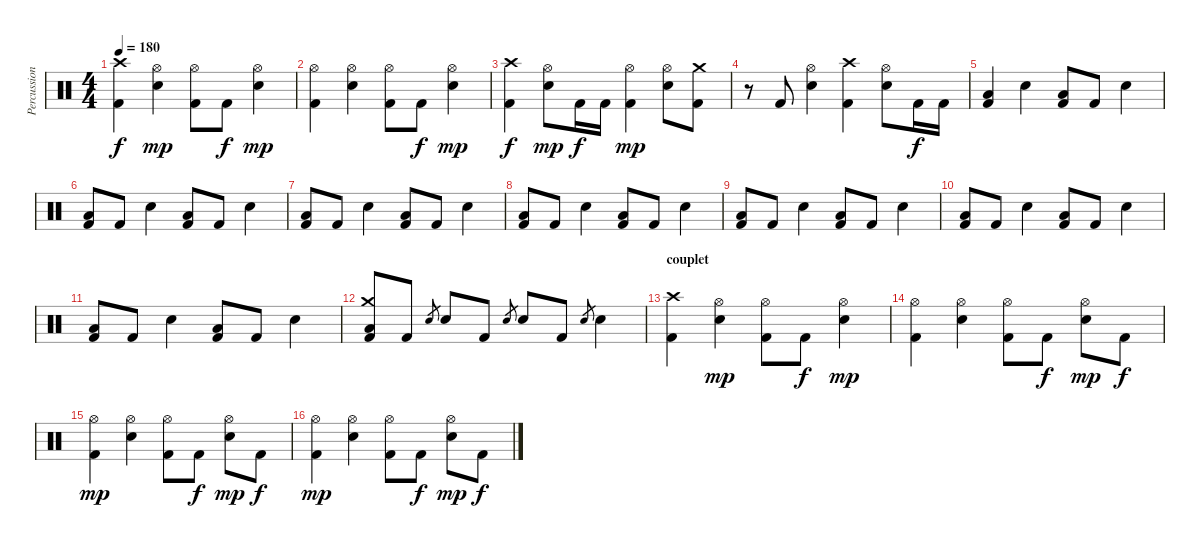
\track ("Percussions" "Percussion") {instrument percussion}
\staff {score}
\articulation defaults
\ts (4 4)
\tempo 180
\clef neutral
\ks c
("Crash high (hit)" "Kick (hit) 2").4{dy f} ("Hi-Hat (open)" "Electric Snare (hit)").4{dy mp} ("Hi-Hat (open)" "Kick (hit) 2").8 "Kick (hit) 2".8{dy f} ("Hi-Hat (open)" "Electric Snare (hit)").4{dy mp} |
("Hi-Hat (open)" "Kick (hit) 2").4 ("Hi-Hat (open)" "Electric Snare (hit)").4 ("Hi-Hat (open)" "Kick (hit) 2").8 "Kick (hit) 2".8{dy f} ("Hi-Hat (open)" "Electric Snare (hit)").4{dy mp} |
("Crash high (hit)" "Kick (hit) 2").4{dy f} ("Hi-Hat (open)" "Electric Snare (hit)").8{dy mp} "Kick (hit) 2".16{dy f} "Kick (hit) 2".16 ("Hi-Hat (open)" "Kick (hit) 2").4{dy mp} ("Hi-Hat (open)" "Electric Snare (hit)").8 ("Crash medium (hit)" "Kick (hit) 2").8 |
r.8 "Kick (hit) 2".8 ("Hi-Hat (open)" "Electric Snare (hit)").4 ("Crash high (hit)" "Kick (hit) 2").4 ("Hi-Hat (open)" "Electric Snare (hit)").8 "Kick (hit) 2".16{dy f} "Kick (hit) 2".16 |
("Low Tom (hit)" "Kick (hit) 2").4 "Electric Snare (hit)".4 ("Low Tom (hit)" "Kick (hit) 2").8 "Kick (hit) 2".8 "Electric Snare (hit)".4 |
("Low Tom (hit)" "Kick (hit) 2").8 "Kick (hit) 2".8 "Electric Snare (hit)".4 ("Low Tom (hit)" "Kick (hit) 2").8 "Kick (hit) 2".8 "Electric Snare (hit)".4 |
("Low Tom (hit)" "Kick (hit) 2").8 "Kick (hit) 2".8 "Electric Snare (hit)".4 ("Low Tom (hit)" "Kick (hit) 2").8 "Kick (hit) 2".8 "Electric Snare (hit)".4 |
("Low Tom (hit)" "Kick (hit) 2").8 "Kick (hit) 2".8 "Electric Snare (hit)".4 ("Low Tom (hit)" "Kick (hit) 2").8 "Kick (hit) 2".8 "Electric Snare (hit)".4 |
("Low Tom (hit)" "Kick (hit) 2").8 "Kick (hit) 2".8 "Electric Snare (hit)".4 ("Low Tom (hit)" "Kick (hit) 2").8 "Kick (hit) 2".8 "Electric Snare (hit)".4 |
("Low Tom (hit)" "Kick (hit) 2").8 "Kick (hit) 2".8 "Electric Snare (hit)".4 ("Low Tom (hit)" "Kick (hit) 2").8 "Kick (hit) 2".8 "Electric Snare (hit)".4 |
("Low Tom (hit)" "Kick (hit) 2").8 "Kick (hit) 2".8 "Electric Snare (hit)".4 ("Low Tom (hit)" "Kick (hit) 2").8 "Kick (hit) 2".8 "Electric Snare (hit)".4 |
("Crash medium (hit)" "Low Tom (hit)" "Kick (hit) 2").8 "Kick (hit) 2".8 "Electric Snare (hit)".8{gr} "Electric Snare (hit)".8 "Kick (hit) 2".8 "Electric Snare (hit)".8{gr} "Electric Snare (hit)".8 "Kick (hit) 2".8 "Electric Snare (hit)".8{gr} "Electric Snare (hit)".4 |
\section ("" "couplet")
("Crash high (hit)" "Kick (hit) 2").4 ("Hi-Hat (open)" "Electric Snare (hit)").4{dy mp} ("Hi-Hat (open)" "Kick (hit) 2").8 "Kick (hit) 2".8{dy f} ("Hi-Hat (open)" "Electric Snare (hit)").4{dy mp} |
("Hi-Hat (open)" "Kick (hit) 2").4 ("Hi-Hat (open)" "Electric Snare (hit)").4 ("Hi-Hat (open)" "Kick (hit) 2").8 "Kick (hit) 2".8{dy f} ("Hi-Hat (open)" "Electric Snare (hit)").8{dy mp} "Kick (hit) 2".8{dy f} |
("Hi-Hat (open)" "Kick (hit) 2").4{dy mp} ("Hi-Hat (open)" "Electric Snare (hit)").4 ("Hi-Hat (open)" "Kick (hit) 2").8 "Kick (hit) 2".8{dy f} ("Hi-Hat (open)" "Electric Snare (hit)").8{dy mp} "Kick (hit) 2".8{dy f} |
("Hi-Hat (open)" "Kick (hit) 2").4{dy mp} ("Hi-Hat (open)" "Electric Snare (hit)").4 ("Hi-Hat (open)" "Kick (hit) 2").8 "Kick (hit) 2".8{dy f} ("Hi-Hat (open)" "Electric Snare (hit)").8{dy mp} "Kick (hit) 2".8{dy f}
